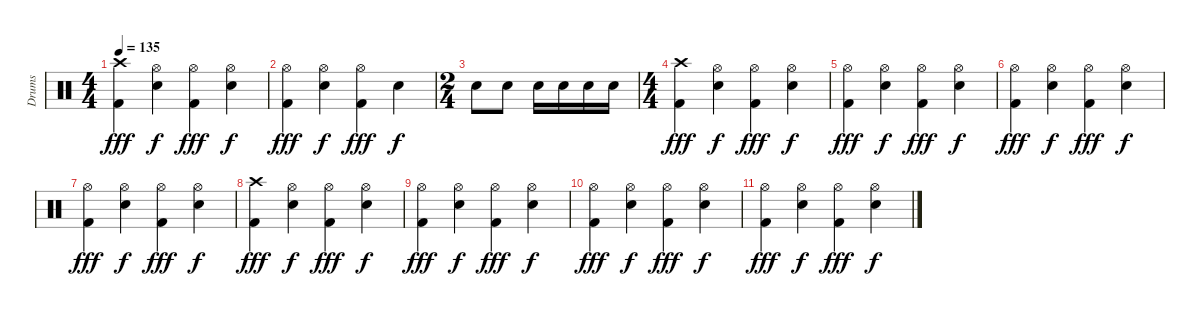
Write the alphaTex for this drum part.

\track ("Drums" "Drums") {instrument percussion}
\staff {score}
\articulation defaults
\ts (4 4)
\tempo 135
\clef neutral
\ks c
("Crash high (hit)" "Kick (hit) 2").4{dy fff} ("Hi-Hat (open)" "Snare (hit) 2").4{dy f} ("Hi-Hat (open)" "Kick (hit) 2").4{dy fff} ("Hi-Hat (open)" "Snare (hit) 2").4{dy f} |
("Hi-Hat (open)" "Kick (hit) 2").4{dy fff} ("Hi-Hat (open)" "Snare (hit) 2").4{dy f} ("Hi-Hat (open)" "Kick (hit) 2").4{dy fff} "Snare (hit) 2".4{dy f} |
\ts (2 4)
"Snare (hit) 2".8 "Snare (hit) 2".8 "Snare (hit) 2".16 "Snare (hit) 2".16 "Snare (hit) 2".16 "Snare (hit) 2".16 |
\ts (4 4)
("Crash high (hit)" "Kick (hit) 2").4{dy fff} ("Hi-Hat (open)" "Snare (hit) 2").4{dy f} ("Hi-Hat (open)" "Kick (hit) 2").4{dy fff} ("Hi-Hat (open)" "Snare (hit) 2").4{dy f} |
("Hi-Hat (open)" "Kick (hit) 2").4{dy fff} ("Hi-Hat (open)" "Snare (hit) 2").4{dy f} ("Hi-Hat (open)" "Kick (hit) 2").4{dy fff} ("Hi-Hat (open)" "Snare (hit) 2").4{dy f} |
("Hi-Hat (open)" "Kick (hit) 2").4{dy fff} ("Hi-Hat (open)" "Snare (hit) 2").4{dy f} ("Hi-Hat (open)" "Kick (hit) 2").4{dy fff} ("Hi-Hat (open)" "Snare (hit) 2").4{dy f} |
("Hi-Hat (open)" "Kick (hit) 2").4{dy fff} ("Hi-Hat (open)" "Snare (hit) 2").4{dy f} ("Hi-Hat (open)" "Kick (hit) 2").4{dy fff} ("Hi-Hat (open)" "Snare (hit) 2").4{dy f} |
("Crash high (hit)" "Kick (hit) 2").4{dy fff} ("Hi-Hat (open)" "Snare (hit) 2").4{dy f} ("Hi-Hat (open)" "Kick (hit) 2").4{dy fff} ("Hi-Hat (open)" "Snare (hit) 2").4{dy f} |
("Hi-Hat (open)" "Kick (hit) 2").4{dy fff} ("Hi-Hat (open)" "Snare (hit) 2").4{dy f} ("Hi-Hat (open)" "Kick (hit) 2").4{dy fff} ("Hi-Hat (open)" "Snare (hit) 2").4{dy f} |
("Hi-Hat (open)" "Kick (hit) 2").4{dy fff} ("Hi-Hat (open)" "Snare (hit) 2").4{dy f} ("Hi-Hat (open)" "Kick (hit) 2").4{dy fff} ("Hi-Hat (open)" "Snare (hit) 2").4{dy f} |
("Hi-Hat (open)" "Kick (hit) 2").4{dy fff} ("Hi-Hat (open)" "Snare (hit) 2").4{dy f} ("Hi-Hat (open)" "Kick (hit) 2").4{dy fff} ("Hi-Hat (open)" "Snare (hit) 2").4{dy f}
